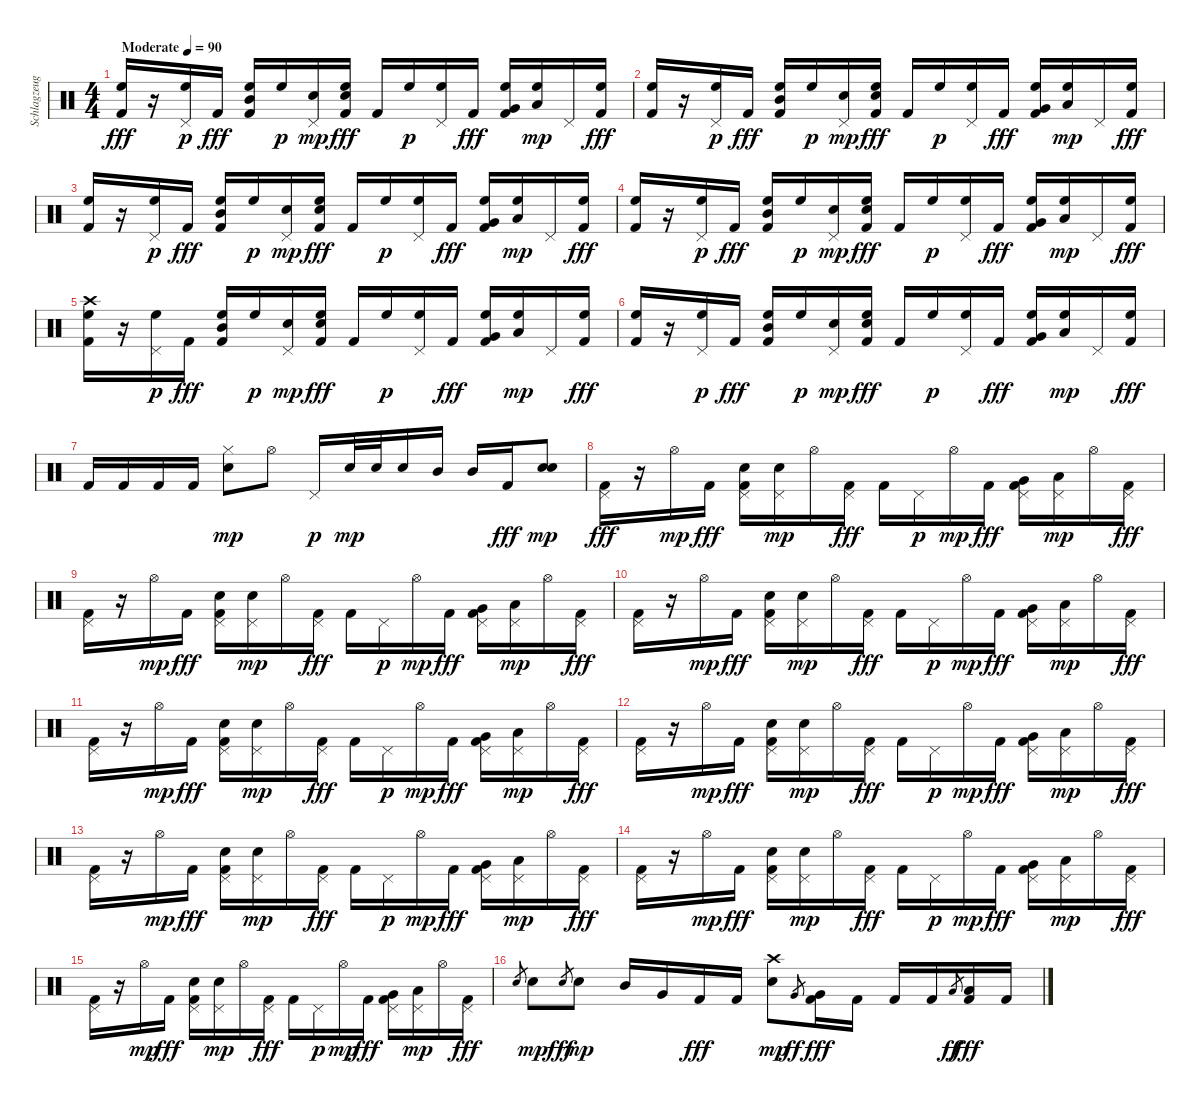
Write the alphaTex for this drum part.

\track ("Schlagzeug" "Schlagzeug") {instrument percussion}
\staff {score}
\articulation defaults
\ts (4 4)
\tempo (90 "Moderate")
\clef neutral
\ks c
("High Floor Tom (hit)" "Kick (hit) 2").16{dy fff} r.16 ("Pedal Hi-Hat (hit)" "High Floor Tom (hit)").16{dy p} "Kick (hit) 2".16{dy fff} ("High Floor Tom (hit)" "Mid Tom (hit)" "Kick (hit) 2").16 "High Floor Tom (hit)".16{dy p} ("Pedal Hi-Hat (hit)" "Electric Snare (hit)").16{dy mp} ("High Floor Tom (hit)" "Electric Snare (hit)" "Kick (hit) 2").16{dy fff} "Kick (hit) 2".16 "High Floor Tom (hit)".16{dy p} ("Pedal Hi-Hat (hit)" "High Floor Tom (hit)").16 "Kick (hit) 2".16{dy fff} ("High Floor Tom (hit)" "Very Low Tom (hit)" "Kick (hit) 2").16 ("High Floor Tom (hit)" "Low Floor Tom (hit)").16{dy mp} "Pedal Hi-Hat (hit)".16 ("High Floor Tom (hit)" "Kick (hit) 2").16{dy fff} |
("High Floor Tom (hit)" "Kick (hit) 2").16 r.16 ("Pedal Hi-Hat (hit)" "High Floor Tom (hit)").16{dy p} "Kick (hit) 2".16{dy fff} ("High Floor Tom (hit)" "Mid Tom (hit)" "Kick (hit) 2").16 "High Floor Tom (hit)".16{dy p} ("Pedal Hi-Hat (hit)" "Electric Snare (hit)").16{dy mp} ("High Floor Tom (hit)" "Electric Snare (hit)" "Kick (hit) 2").16{dy fff} "Kick (hit) 2".16 "High Floor Tom (hit)".16{dy p} ("Pedal Hi-Hat (hit)" "High Floor Tom (hit)").16 "Kick (hit) 2".16{dy fff} ("High Floor Tom (hit)" "Very Low Tom (hit)" "Kick (hit) 2").16 ("High Floor Tom (hit)" "Low Floor Tom (hit)").16{dy mp} "Pedal Hi-Hat (hit)".16 ("High Floor Tom (hit)" "Kick (hit) 2").16{dy fff} |
("High Floor Tom (hit)" "Kick (hit) 2").16 r.16 ("Pedal Hi-Hat (hit)" "High Floor Tom (hit)").16{dy p} "Kick (hit) 2".16{dy fff} ("High Floor Tom (hit)" "Mid Tom (hit)" "Kick (hit) 2").16 "High Floor Tom (hit)".16{dy p} ("Pedal Hi-Hat (hit)" "Electric Snare (hit)").16{dy mp} ("High Floor Tom (hit)" "Electric Snare (hit)" "Kick (hit) 2").16{dy fff} "Kick (hit) 2".16 "High Floor Tom (hit)".16{dy p} ("Pedal Hi-Hat (hit)" "High Floor Tom (hit)").16 "Kick (hit) 2".16{dy fff} ("High Floor Tom (hit)" "Very Low Tom (hit)" "Kick (hit) 2").16 ("High Floor Tom (hit)" "Low Floor Tom (hit)").16{dy mp} "Pedal Hi-Hat (hit)".16 ("High Floor Tom (hit)" "Kick (hit) 2").16{dy fff} |
("High Floor Tom (hit)" "Kick (hit) 2").16 r.16 ("Pedal Hi-Hat (hit)" "High Floor Tom (hit)").16{dy p} "Kick (hit) 2".16{dy fff} ("High Floor Tom (hit)" "Mid Tom (hit)" "Kick (hit) 2").16 "High Floor Tom (hit)".16{dy p} ("Pedal Hi-Hat (hit)" "Electric Snare (hit)").16{dy mp} ("High Floor Tom (hit)" "Electric Snare (hit)" "Kick (hit) 2").16{dy fff} "Kick (hit) 2".16 "High Floor Tom (hit)".16{dy p} ("Pedal Hi-Hat (hit)" "High Floor Tom (hit)").16 "Kick (hit) 2".16{dy fff} ("High Floor Tom (hit)" "Very Low Tom (hit)" "Kick (hit) 2").16 ("High Floor Tom (hit)" "Low Floor Tom (hit)").16{dy mp} "Pedal Hi-Hat (hit)".16 ("High Floor Tom (hit)" "Kick (hit) 2").16{dy fff} |
("Crash high (hit)" "High Floor Tom (hit)" "Kick (hit) 2").16 r.16 ("Pedal Hi-Hat (hit)" "High Floor Tom (hit)").16{dy p} "Kick (hit) 2".16{dy fff} ("High Floor Tom (hit)" "Mid Tom (hit)" "Kick (hit) 2").16 "High Floor Tom (hit)".16{dy p} ("Pedal Hi-Hat (hit)" "Electric Snare (hit)").16{dy mp} ("High Floor Tom (hit)" "Electric Snare (hit)" "Kick (hit) 2").16{dy fff} "Kick (hit) 2".16 "High Floor Tom (hit)".16{dy p} ("Pedal Hi-Hat (hit)" "High Floor Tom (hit)").16 "Kick (hit) 2".16{dy fff} ("High Floor Tom (hit)" "Very Low Tom (hit)" "Kick (hit) 2").16 ("High Floor Tom (hit)" "Low Floor Tom (hit)").16{dy mp} "Pedal Hi-Hat (hit)".16 ("High Floor Tom (hit)" "Kick (hit) 2").16{dy fff} |
("High Floor Tom (hit)" "Kick (hit) 2").16 r.16 ("Pedal Hi-Hat (hit)" "High Floor Tom (hit)").16{dy p} "Kick (hit) 2".16{dy fff} ("High Floor Tom (hit)" "Mid Tom (hit)" "Kick (hit) 2").16 "High Floor Tom (hit)".16{dy p} ("Pedal Hi-Hat (hit)" "Electric Snare (hit)").16{dy mp} ("High Floor Tom (hit)" "Electric Snare (hit)" "Kick (hit) 2").16{dy fff} "Kick (hit) 2".16 "High Floor Tom (hit)".16{dy p} ("Pedal Hi-Hat (hit)" "High Floor Tom (hit)").16 "Kick (hit) 2".16{dy fff} ("High Floor Tom (hit)" "Very Low Tom (hit)" "Kick (hit) 2").16 ("High Floor Tom (hit)" "Low Floor Tom (hit)").16{dy mp} "Pedal Hi-Hat (hit)".16 ("High Floor Tom (hit)" "Kick (hit) 2").16{dy fff} |
"Kick (hit) 2".16 "Kick (hit) 2".16 "Kick (hit) 2".16 "Kick (hit) 2".16 ("Hi-Hat (closed)" "Electric Snare (hit)").8{dy mp} "Hi-Hat (open)".8 "Pedal Hi-Hat (hit)".16{dy p} "Electric Snare (hit)".32{dy mp} "Electric Snare (hit)".32 "Electric Snare (hit)".16 "Mid Tom (hit)".16 "Mid Tom (hit)".16 "Kick (hit) 2".16{dy fff} ("Electric Snare (hit)" "Electric Snare (hit)").8{dy mp} |
("Pedal Hi-Hat (hit)" "Kick (hit) 2").16{dy fff} r.16 "Hi-Hat (open)".16{dy mp} "Kick (hit) 2".16{dy fff} ("Pedal Hi-Hat (hit)" "Electric Snare (hit)" "Kick (hit) 2").16 ("Pedal Hi-Hat (hit)" "Electric Snare (hit)").16{dy mp} "Hi-Hat (open)".16 ("Pedal Hi-Hat (hit)" "Kick (hit) 2").16{dy fff} "Kick (hit) 2".16 "Pedal Hi-Hat (hit)".16{dy p} "Hi-Hat (open)".16{dy mp} "Kick (hit) 2".16{dy fff} ("Pedal Hi-Hat (hit)" "Very Low Tom (hit)" "Kick (hit) 2").16 ("Pedal Hi-Hat (hit)" "Low Floor Tom (hit)").16{dy mp} "Hi-Hat (open)".16 ("Pedal Hi-Hat (hit)" "Kick (hit) 2").16{dy fff} |
("Pedal Hi-Hat (hit)" "Kick (hit) 2").16 r.16 "Hi-Hat (open)".16{dy mp} "Kick (hit) 2".16{dy fff} ("Pedal Hi-Hat (hit)" "Electric Snare (hit)" "Kick (hit) 2").16 ("Pedal Hi-Hat (hit)" "Electric Snare (hit)").16{dy mp} "Hi-Hat (open)".16 ("Pedal Hi-Hat (hit)" "Kick (hit) 2").16{dy fff} "Kick (hit) 2".16 "Pedal Hi-Hat (hit)".16{dy p} "Hi-Hat (open)".16{dy mp} "Kick (hit) 2".16{dy fff} ("Pedal Hi-Hat (hit)" "Very Low Tom (hit)" "Kick (hit) 2").16 ("Pedal Hi-Hat (hit)" "Low Floor Tom (hit)").16{dy mp} "Hi-Hat (open)".16 ("Pedal Hi-Hat (hit)" "Kick (hit) 2").16{dy fff} |
("Pedal Hi-Hat (hit)" "Kick (hit) 2").16 r.16 "Hi-Hat (open)".16{dy mp} "Kick (hit) 2".16{dy fff} ("Pedal Hi-Hat (hit)" "Electric Snare (hit)" "Kick (hit) 2").16 ("Pedal Hi-Hat (hit)" "Electric Snare (hit)").16{dy mp} "Hi-Hat (open)".16 ("Pedal Hi-Hat (hit)" "Kick (hit) 2").16{dy fff} "Kick (hit) 2".16 "Pedal Hi-Hat (hit)".16{dy p} "Hi-Hat (open)".16{dy mp} "Kick (hit) 2".16{dy fff} ("Pedal Hi-Hat (hit)" "Very Low Tom (hit)" "Kick (hit) 2").16 ("Pedal Hi-Hat (hit)" "Low Floor Tom (hit)").16{dy mp} "Hi-Hat (open)".16 ("Pedal Hi-Hat (hit)" "Kick (hit) 2").16{dy fff} |
("Pedal Hi-Hat (hit)" "Kick (hit) 2").16 r.16 "Hi-Hat (open)".16{dy mp} "Kick (hit) 2".16{dy fff} ("Pedal Hi-Hat (hit)" "Electric Snare (hit)" "Kick (hit) 2").16 ("Pedal Hi-Hat (hit)" "Electric Snare (hit)").16{dy mp} "Hi-Hat (open)".16 ("Pedal Hi-Hat (hit)" "Kick (hit) 2").16{dy fff} "Kick (hit) 2".16 "Pedal Hi-Hat (hit)".16{dy p} "Hi-Hat (open)".16{dy mp} "Kick (hit) 2".16{dy fff} ("Pedal Hi-Hat (hit)" "Very Low Tom (hit)" "Kick (hit) 2").16 ("Pedal Hi-Hat (hit)" "Low Floor Tom (hit)").16{dy mp} "Hi-Hat (open)".16 ("Pedal Hi-Hat (hit)" "Kick (hit) 2").16{dy fff} |
("Pedal Hi-Hat (hit)" "Kick (hit) 2").16 r.16 "Hi-Hat (open)".16{dy mp} "Kick (hit) 2".16{dy fff} ("Pedal Hi-Hat (hit)" "Electric Snare (hit)" "Kick (hit) 2").16 ("Pedal Hi-Hat (hit)" "Electric Snare (hit)").16{dy mp} "Hi-Hat (open)".16 ("Pedal Hi-Hat (hit)" "Kick (hit) 2").16{dy fff} "Kick (hit) 2".16 "Pedal Hi-Hat (hit)".16{dy p} "Hi-Hat (open)".16{dy mp} "Kick (hit) 2".16{dy fff} ("Pedal Hi-Hat (hit)" "Very Low Tom (hit)" "Kick (hit) 2").16 ("Pedal Hi-Hat (hit)" "Low Floor Tom (hit)").16{dy mp} "Hi-Hat (open)".16 ("Pedal Hi-Hat (hit)" "Kick (hit) 2").16{dy fff} |
("Pedal Hi-Hat (hit)" "Kick (hit) 2").16 r.16 "Hi-Hat (open)".16{dy mp} "Kick (hit) 2".16{dy fff} ("Pedal Hi-Hat (hit)" "Electric Snare (hit)" "Kick (hit) 2").16 ("Pedal Hi-Hat (hit)" "Electric Snare (hit)").16{dy mp} "Hi-Hat (open)".16 ("Pedal Hi-Hat (hit)" "Kick (hit) 2").16{dy fff} "Kick (hit) 2".16 "Pedal Hi-Hat (hit)".16{dy p} "Hi-Hat (open)".16{dy mp} "Kick (hit) 2".16{dy fff} ("Pedal Hi-Hat (hit)" "Very Low Tom (hit)" "Kick (hit) 2").16 ("Pedal Hi-Hat (hit)" "Low Floor Tom (hit)").16{dy mp} "Hi-Hat (open)".16 ("Pedal Hi-Hat (hit)" "Kick (hit) 2").16{dy fff} |
("Pedal Hi-Hat (hit)" "Kick (hit) 2").16 r.16 "Hi-Hat (open)".16{dy mp} "Kick (hit) 2".16{dy fff} ("Pedal Hi-Hat (hit)" "Electric Snare (hit)" "Kick (hit) 2").16 ("Pedal Hi-Hat (hit)" "Electric Snare (hit)").16{dy mp} "Hi-Hat (open)".16 ("Pedal Hi-Hat (hit)" "Kick (hit) 2").16{dy fff} "Kick (hit) 2".16 "Pedal Hi-Hat (hit)".16{dy p} "Hi-Hat (open)".16{dy mp} "Kick (hit) 2".16{dy fff} ("Pedal Hi-Hat (hit)" "Very Low Tom (hit)" "Kick (hit) 2").16 ("Pedal Hi-Hat (hit)" "Low Floor Tom (hit)").16{dy mp} "Hi-Hat (open)".16 ("Pedal Hi-Hat (hit)" "Kick (hit) 2").16{dy fff} |
("Pedal Hi-Hat (hit)" "Kick (hit) 2").16 r.16 "Hi-Hat (open)".16{dy mp} "Kick (hit) 2".16{dy fff} ("Pedal Hi-Hat (hit)" "Electric Snare (hit)" "Kick (hit) 2").16 ("Pedal Hi-Hat (hit)" "Electric Snare (hit)").16{dy mp} "Hi-Hat (open)".16 ("Pedal Hi-Hat (hit)" "Kick (hit) 2").16{dy fff} "Kick (hit) 2".16 "Pedal Hi-Hat (hit)".16{dy p} "Hi-Hat (open)".16{dy mp} "Kick (hit) 2".16{dy fff} ("Pedal Hi-Hat (hit)" "Very Low Tom (hit)" "Kick (hit) 2").16 ("Pedal Hi-Hat (hit)" "Low Floor Tom (hit)").16{dy mp} "Hi-Hat (open)".16 ("Pedal Hi-Hat (hit)" "Kick (hit) 2").16{dy fff} |
"Electric Snare (hit)".8{gr} "Electric Snare (hit)".8{dy mp} "Electric Snare (hit)".8{gr dy fff} "Electric Snare (hit)".8{dy mp} "Mid Tom (hit)".16 "Very Low Tom (hit)".16 "Kick (hit) 2".16{dy fff} "Kick (hit) 2".16 ("Crash high (hit)" "Electric Snare (hit)").8{dy mp} "Very Low Tom (hit)".8{gr dy ff} ("Very Low Tom (hit)" "Kick (hit) 2").16{dy fff} "Kick (hit) 2".16 "Kick (hit) 2".16 "Kick (hit) 2".16 "Low Floor Tom (hit)".8{gr dy ff} ("Low Floor Tom (hit)" "Kick (hit) 2").16{dy fff} "Kick (hit) 2".16
